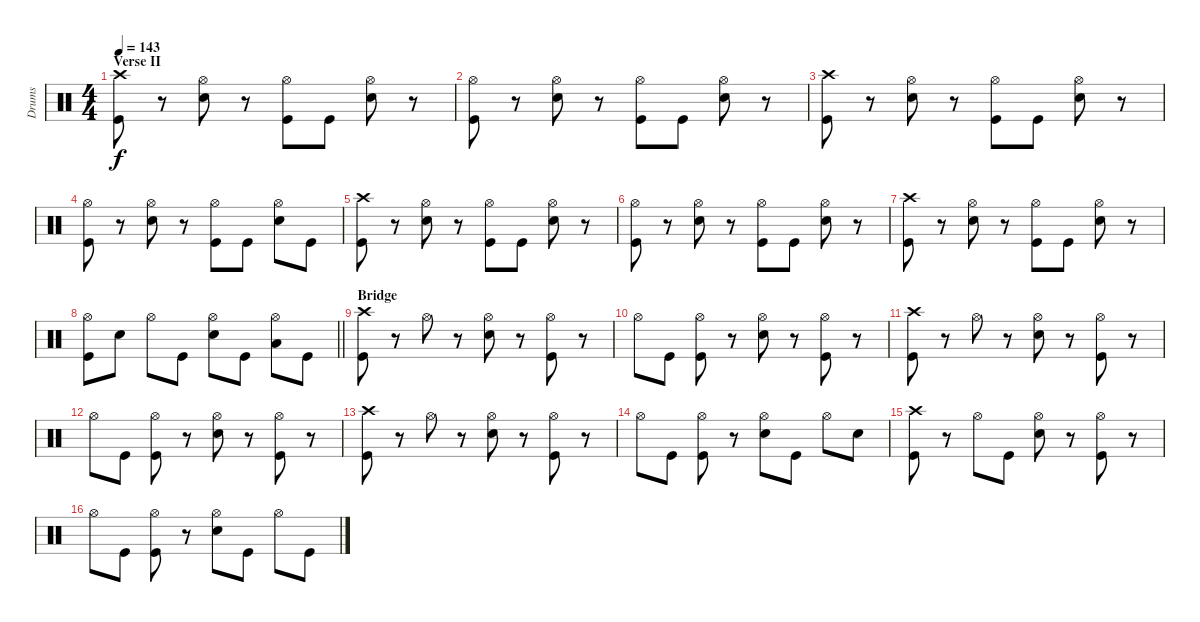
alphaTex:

\track ("Drums" "Drums") {instrument percussion}
\staff {score}
\articulation defaults
\ts (4 4)
\section ("" "Verse II")
\tempo 143
\clef neutral
\ks c
("Crash high (hit)" "Kick (hit)").8{dy f} r.8 ("Hi-Hat (open)" "Snare (hit) 2").8 r.8 ("Hi-Hat (open)" "Kick (hit)").8 "Kick (hit)".8 ("Hi-Hat (open)" "Snare (hit) 2").8 r.8 |
("Hi-Hat (open)" "Kick (hit)").8 r.8 ("Hi-Hat (open)" "Snare (hit) 2").8 r.8 ("Hi-Hat (open)" "Kick (hit)").8 "Kick (hit)".8 ("Hi-Hat (open)" "Snare (hit) 2").8 r.8 |
("Crash high (hit)" "Kick (hit)").8 r.8 ("Hi-Hat (open)" "Snare (hit) 2").8 r.8 ("Hi-Hat (open)" "Kick (hit)").8 "Kick (hit)".8 ("Hi-Hat (open)" "Snare (hit) 2").8 r.8 |
("Hi-Hat (open)" "Kick (hit)").8 r.8 ("Hi-Hat (open)" "Snare (hit) 2").8 r.8 ("Hi-Hat (open)" "Kick (hit)").8 "Kick (hit)".8 ("Hi-Hat (open)" "Snare (hit) 2").8 "Kick (hit)".8 |
("Crash high (hit)" "Kick (hit)").8 r.8 ("Hi-Hat (open)" "Snare (hit) 2").8 r.8 ("Hi-Hat (open)" "Kick (hit)").8 "Kick (hit)".8 ("Hi-Hat (open)" "Snare (hit) 2").8 r.8 |
("Hi-Hat (open)" "Kick (hit)").8 r.8 ("Hi-Hat (open)" "Snare (hit) 2").8 r.8 ("Hi-Hat (open)" "Kick (hit)").8 "Kick (hit)".8 ("Hi-Hat (open)" "Snare (hit) 2").8 r.8 |
("Crash high (hit)" "Kick (hit)").8 r.8 ("Hi-Hat (open)" "Snare (hit) 2").8 r.8 ("Hi-Hat (open)" "Kick (hit)").8 "Kick (hit)".8 ("Hi-Hat (open)" "Snare (hit) 2").8 r.8 |
\barLineRight lightlight
("Hi-Hat (open)" "Kick (hit)").8 "Snare (hit) 2".8 "Hi-Hat (open)".8 "Kick (hit)".8 ("Hi-Hat (open)" "Snare (hit) 2").8 "Kick (hit)".8 ("Hi-Hat (open)" "Low Tom (hit)").8 "Kick (hit)".8 |
\section ("" "Bridge")
("Crash high (hit)" "Kick (hit)").8 r.8 "Hi-Hat (open)".8 r.8 ("Hi-Hat (open)" "Snare (hit) 2").8 r.8 ("Hi-Hat (open)" "Kick (hit)").8 r.8 |
"Hi-Hat (open)".8 "Kick (hit)".8 ("Hi-Hat (open)" "Kick (hit)").8 r.8 ("Hi-Hat (open)" "Snare (hit) 2").8 r.8 ("Hi-Hat (open)" "Kick (hit)").8 r.8 |
("Crash high (hit)" "Kick (hit)").8 r.8 "Hi-Hat (open)".8 r.8 ("Hi-Hat (open)" "Snare (hit) 2").8 r.8 ("Hi-Hat (open)" "Kick (hit)").8 r.8 |
"Hi-Hat (open)".8 "Kick (hit)".8 ("Hi-Hat (open)" "Kick (hit)").8 r.8 ("Hi-Hat (open)" "Snare (hit) 2").8 r.8 ("Hi-Hat (open)" "Kick (hit)").8 r.8 |
("Crash high (hit)" "Kick (hit)").8 r.8 "Hi-Hat (open)".8 r.8 ("Hi-Hat (open)" "Snare (hit) 2").8 r.8 ("Hi-Hat (open)" "Kick (hit)").8 r.8 |
"Hi-Hat (open)".8 "Kick (hit)".8 ("Hi-Hat (open)" "Kick (hit)").8 r.8 ("Hi-Hat (open)" "Snare (hit) 2").8 "Kick (hit)".8 "Hi-Hat (open)".8 "Snare (hit) 2".8 |
("Crash high (hit)" "Kick (hit)").8 r.8 "Hi-Hat (open)".8 "Kick (hit)".8 ("Hi-Hat (open)" "Snare (hit) 2").8 r.8 ("Hi-Hat (open)" "Kick (hit)").8 r.8 |
"Hi-Hat (open)".8 "Kick (hit)".8 ("Hi-Hat (open)" "Kick (hit)").8 r.8 ("Hi-Hat (open)" "Snare (hit) 2").8 "Kick (hit)".8 "Hi-Hat (open)".8 "Kick (hit)".8
